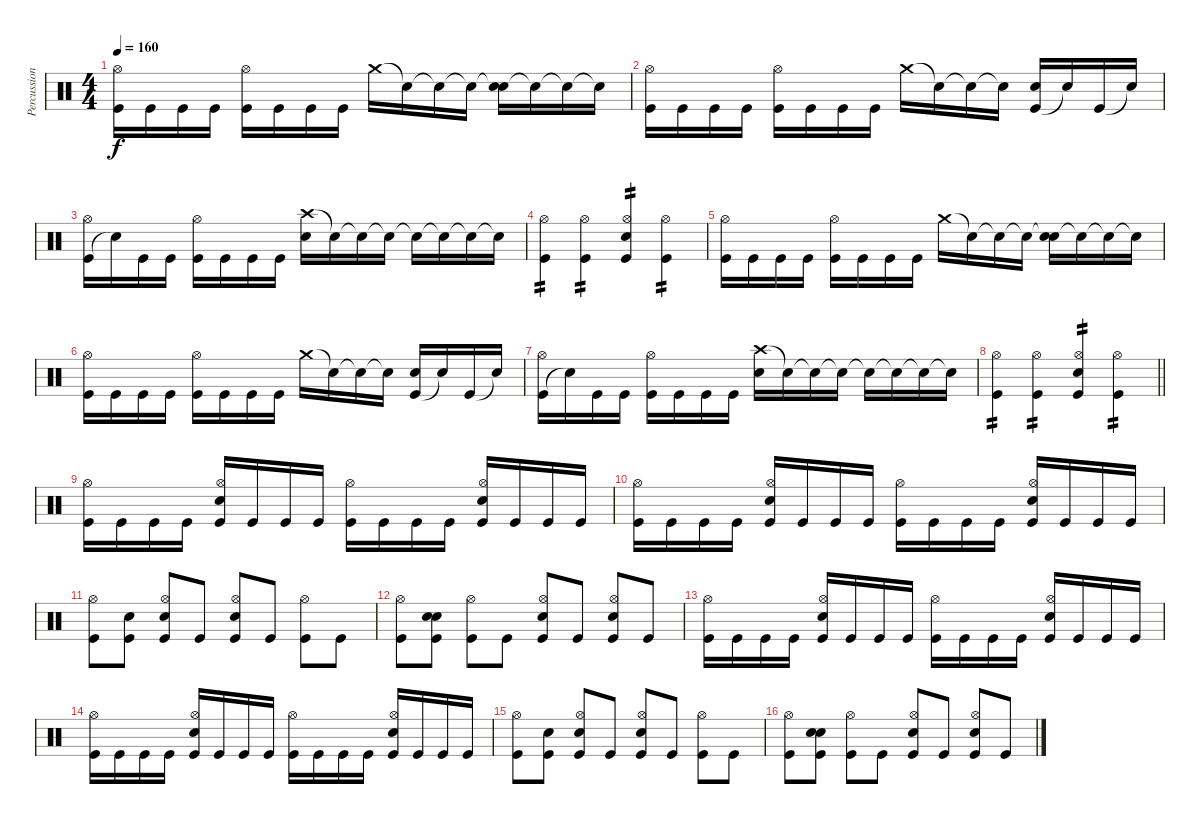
\track ("Percussion" "Percussion") {instrument percussion}
\staff {score}
\articulation defaults
\ts (4 4)
\tempo 160
\clef neutral
\ks c
("Kick (hit)" "Hi-Hat (open)").16{dy f} "Kick (hit)".16 "Kick (hit)".16 "Kick (hit)".16 ("Kick (hit)" "Hi-Hat (open)").16 "Kick (hit)".16 "Kick (hit)".16 "Kick (hit)".16 "Crash medium (hit)".16 "Snare (hit)"{t}.16 "Snare (hit)"{t}.16 "Snare (hit)"{t}.16 ("Snare (hit)"{t} "Snare (hit) 2").16 "Snare (hit)"{t}.16 "Snare (hit)"{t}.16 "Snare (hit)"{t}.16 |
("Kick (hit)" "Hi-Hat (open)").16 "Kick (hit)".16 "Kick (hit)".16 "Kick (hit)".16 ("Kick (hit)" "Hi-Hat (open)").16 "Kick (hit)".16 "Kick (hit)".16 "Kick (hit)".16 "Crash medium (hit)".16 "Snare (hit)"{t}.16 "Snare (hit)"{t}.16 "Snare (hit)"{t}.16 ("Kick (hit)" "Snare (hit) 2").16 "Snare (hit)"{t}.16 "Kick (hit)".16 "Snare (hit)"{t}.16 |
("Kick (hit)" "Hi-Hat (open)").16 "Snare (hit)"{t}.16 "Kick (hit)".16 "Kick (hit)".16 ("Kick (hit)" "Hi-Hat (open)").16 "Kick (hit)".16 "Kick (hit)".16 "Kick (hit)".16 ("Crash high (hit)" "Snare (hit) 2").16 "Snare (hit)"{t}.16 "Snare (hit)"{t}.16 "Snare (hit)"{t}.16 "Snare (hit)"{t}.16 "Snare (hit)"{t}.16 "Snare (hit)"{t}.16 "Snare (hit)"{t}.16 |
("Kick (hit)" "Hi-Hat (open)").4{tp 2} ("Kick (hit)" "Hi-Hat (open)").4{tp 2} ("Kick (hit)" "Snare (hit) 2" "Hi-Hat (open)").4{tp 2} ("Kick (hit)" "Hi-Hat (open)").4{tp 2} |
("Kick (hit)" "Hi-Hat (open)").16 "Kick (hit)".16 "Kick (hit)".16 "Kick (hit)".16 ("Kick (hit)" "Hi-Hat (open)").16 "Kick (hit)".16 "Kick (hit)".16 "Kick (hit)".16 "Crash medium (hit)".16 "Snare (hit)"{t}.16 "Snare (hit)"{t}.16 "Snare (hit)"{t}.16 ("Snare (hit)"{t} "Snare (hit) 2").16 "Snare (hit)"{t}.16 "Snare (hit)"{t}.16 "Snare (hit)"{t}.16 |
("Kick (hit)" "Hi-Hat (open)").16 "Kick (hit)".16 "Kick (hit)".16 "Kick (hit)".16 ("Kick (hit)" "Hi-Hat (open)").16 "Kick (hit)".16 "Kick (hit)".16 "Kick (hit)".16 "Crash medium (hit)".16 "Snare (hit)"{t}.16 "Snare (hit)"{t}.16 "Snare (hit)"{t}.16 ("Kick (hit)" "Snare (hit) 2").16 "Snare (hit)"{t}.16 "Kick (hit)".16 "Snare (hit)"{t}.16 |
("Kick (hit)" "Hi-Hat (open)").16 "Snare (hit)"{t}.16 "Kick (hit)".16 "Kick (hit)".16 ("Kick (hit)" "Hi-Hat (open)").16 "Kick (hit)".16 "Kick (hit)".16 "Kick (hit)".16 ("Crash high (hit)" "Snare (hit) 2").16 "Snare (hit)"{t}.16 "Snare (hit)"{t}.16 "Snare (hit)"{t}.16 "Snare (hit)"{t}.16 "Snare (hit)"{t}.16 "Snare (hit)"{t}.16 "Snare (hit)"{t}.16 |
\barLineRight lightlight
("Kick (hit)" "Hi-Hat (open)").4{tp 2} ("Kick (hit)" "Hi-Hat (open)").4{tp 2} ("Kick (hit)" "Snare (hit) 2" "Hi-Hat (open)").4{tp 2} ("Kick (hit)" "Hi-Hat (open)").4{tp 2} |
\section ("" "")
("Hi-Hat (open)" "Kick (hit)").16 "Kick (hit)".16 "Kick (hit)".16 "Kick (hit)".16 ("Hi-Hat (open)" "Snare (hit) 2" "Kick (hit)").16 "Kick (hit)".16 "Kick (hit)".16 "Kick (hit)".16 ("Hi-Hat (open)" "Kick (hit)").16 "Kick (hit)".16 "Kick (hit)".16 "Kick (hit)".16 ("Hi-Hat (open)" "Snare (hit) 2" "Kick (hit)").16 "Kick (hit)".16 "Kick (hit)".16 "Kick (hit)".16 |
("Hi-Hat (open)" "Kick (hit)").16 "Kick (hit)".16 "Kick (hit)".16 "Kick (hit)".16 ("Hi-Hat (open)" "Snare (hit) 2" "Kick (hit)").16 "Kick (hit)".16 "Kick (hit)".16 "Kick (hit)".16 ("Hi-Hat (open)" "Kick (hit)").16 "Kick (hit)".16 "Kick (hit)".16 "Kick (hit)".16 ("Hi-Hat (open)" "Snare (hit) 2" "Kick (hit)").16 "Kick (hit)".16 "Kick (hit)".16 "Kick (hit)".16 |
("Kick (hit)" "Hi-Hat (open)").8 ("Kick (hit)" "Snare (hit)").8 ("Kick (hit)" "Snare (hit) 2" "Hi-Hat (open)").8 "Kick (hit)".8 ("Kick (hit)" "Snare (hit) 2" "Hi-Hat (open)").8 "Kick (hit)".8 ("Kick (hit)" "Hi-Hat (open)").8 "Kick (hit)".8 |
("Kick (hit)" "Hi-Hat (open)").8 ("Kick (hit)" "Snare (hit) 2" "Snare (hit)").8 ("Kick (hit)" "Hi-Hat (open)").8 "Kick (hit)".8 ("Kick (hit)" "Snare (hit) 2" "Hi-Hat (open)").8 "Kick (hit)".8 ("Kick (hit)" "Snare (hit) 2" "Hi-Hat (open)").8 "Kick (hit)".8 |
("Hi-Hat (open)" "Kick (hit)").16 "Kick (hit)".16 "Kick (hit)".16 "Kick (hit)".16 ("Hi-Hat (open)" "Snare (hit) 2" "Kick (hit)").16 "Kick (hit)".16 "Kick (hit)".16 "Kick (hit)".16 ("Hi-Hat (open)" "Kick (hit)").16 "Kick (hit)".16 "Kick (hit)".16 "Kick (hit)".16 ("Hi-Hat (open)" "Snare (hit) 2" "Kick (hit)").16 "Kick (hit)".16 "Kick (hit)".16 "Kick (hit)".16 |
("Hi-Hat (open)" "Kick (hit)").16 "Kick (hit)".16 "Kick (hit)".16 "Kick (hit)".16 ("Hi-Hat (open)" "Snare (hit) 2" "Kick (hit)").16 "Kick (hit)".16 "Kick (hit)".16 "Kick (hit)".16 ("Hi-Hat (open)" "Kick (hit)").16 "Kick (hit)".16 "Kick (hit)".16 "Kick (hit)".16 ("Hi-Hat (open)" "Snare (hit) 2" "Kick (hit)").16 "Kick (hit)".16 "Kick (hit)".16 "Kick (hit)".16 |
("Kick (hit)" "Hi-Hat (open)").8 ("Kick (hit)" "Snare (hit)").8 ("Kick (hit)" "Snare (hit) 2" "Hi-Hat (open)").8 "Kick (hit)".8 ("Kick (hit)" "Snare (hit) 2" "Hi-Hat (open)").8 "Kick (hit)".8 ("Kick (hit)" "Hi-Hat (open)").8 "Kick (hit)".8 |
("Kick (hit)" "Hi-Hat (open)").8 ("Kick (hit)" "Snare (hit) 2" "Snare (hit)").8 ("Kick (hit)" "Hi-Hat (open)").8 "Kick (hit)".8 ("Kick (hit)" "Snare (hit) 2" "Hi-Hat (open)").8 "Kick (hit)".8 ("Kick (hit)" "Snare (hit) 2" "Hi-Hat (open)").8 "Kick (hit)".8
